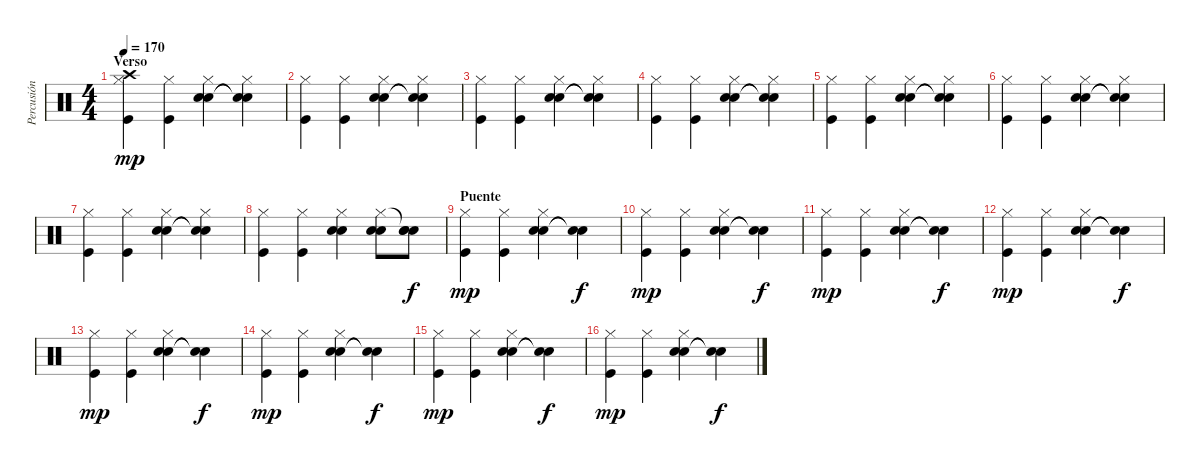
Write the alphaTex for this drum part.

\track ("Percusión" "Percusión") {instrument percussion}
\staff {score}
\articulation defaults
\ts (4 4)
\section ("" "Verso")
\tempo 170
\clef neutral
\ks c
("Kick (hit)" "Crash high (hit)" "Hi-Hat (closed)").4{dy mp} ("Kick (hit)" "Hi-Hat (closed)").4 ("Electric Snare (hit)" "Snare (hit) 2" "Hi-Hat (closed)").4 ("Snare (hit)"{t} "Snare (hit)"{t} "Hi-Hat (closed)").4 |
("Kick (hit)" "Hi-Hat (closed)").4 ("Kick (hit)" "Hi-Hat (closed)").4 ("Electric Snare (hit)" "Snare (hit) 2" "Hi-Hat (closed)").4 ("Snare (hit)"{t} "Snare (hit)"{t} "Hi-Hat (closed)").4 |
("Kick (hit)" "Hi-Hat (closed)").4 ("Kick (hit)" "Hi-Hat (closed)").4 ("Electric Snare (hit)" "Snare (hit) 2" "Hi-Hat (closed)").4 ("Snare (hit)"{t} "Snare (hit)"{t} "Hi-Hat (closed)").4 |
("Kick (hit)" "Hi-Hat (closed)").4 ("Kick (hit)" "Hi-Hat (closed)").4 ("Electric Snare (hit)" "Snare (hit) 2" "Hi-Hat (closed)").4 ("Snare (hit)"{t} "Snare (hit)"{t} "Hi-Hat (closed)").4 |
("Kick (hit)" "Hi-Hat (closed)").4 ("Kick (hit)" "Hi-Hat (closed)").4 ("Electric Snare (hit)" "Snare (hit) 2" "Hi-Hat (closed)").4 ("Snare (hit)"{t} "Snare (hit)"{t} "Hi-Hat (closed)").4 |
("Kick (hit)" "Hi-Hat (closed)").4 ("Kick (hit)" "Hi-Hat (closed)").4 ("Electric Snare (hit)" "Snare (hit) 2" "Hi-Hat (closed)").4 ("Snare (hit)"{t} "Snare (hit)"{t} "Hi-Hat (closed)").4 |
("Kick (hit)" "Hi-Hat (closed)").4 ("Kick (hit)" "Hi-Hat (closed)").4 ("Electric Snare (hit)" "Snare (hit) 2" "Hi-Hat (closed)").4 ("Snare (hit)"{t} "Snare (hit)"{t} "Hi-Hat (closed)").4 |
("Kick (hit)" "Hi-Hat (closed)").4 ("Kick (hit)" "Hi-Hat (closed)").4 ("Electric Snare (hit)" "Snare (hit) 2" "Hi-Hat (closed)").4 ("Electric Snare (hit)" "Snare (hit) 2" "Hi-Hat (closed)").8 ("Electric Snare (hit)" "Snare (hit) 2" "Snare (hit)"{t}).8{dy f} |
\section ("" "Puente")
("Kick (hit)" "Hi-Hat (closed)").4{dy mp} ("Kick (hit)" "Hi-Hat (closed)").4 ("Electric Snare (hit)" "Snare (hit) 2" "Hi-Hat (closed)").4 ("Snare (hit)"{t} "Snare (hit)"{t}).4{dy f} |
("Kick (hit)" "Hi-Hat (closed)").4{dy mp} ("Kick (hit)" "Hi-Hat (closed)").4 ("Electric Snare (hit)" "Snare (hit) 2" "Hi-Hat (closed)").4 ("Snare (hit)"{t} "Snare (hit)"{t}).4{dy f} |
("Kick (hit)" "Hi-Hat (closed)").4{dy mp} ("Kick (hit)" "Hi-Hat (closed)").4 ("Electric Snare (hit)" "Snare (hit) 2" "Hi-Hat (closed)").4 ("Snare (hit)"{t} "Snare (hit)"{t}).4{dy f} |
("Kick (hit)" "Hi-Hat (closed)").4{dy mp} ("Kick (hit)" "Hi-Hat (closed)").4 ("Electric Snare (hit)" "Snare (hit) 2" "Hi-Hat (closed)").4 ("Snare (hit)"{t} "Snare (hit)"{t}).4{dy f} |
("Kick (hit)" "Hi-Hat (closed)").4{dy mp} ("Kick (hit)" "Hi-Hat (closed)").4 ("Electric Snare (hit)" "Snare (hit) 2" "Hi-Hat (closed)").4 ("Snare (hit)"{t} "Snare (hit)"{t}).4{dy f} |
("Kick (hit)" "Hi-Hat (closed)").4{dy mp} ("Kick (hit)" "Hi-Hat (closed)").4 ("Electric Snare (hit)" "Snare (hit) 2" "Hi-Hat (closed)").4 ("Snare (hit)"{t} "Snare (hit)"{t}).4{dy f} |
("Kick (hit)" "Hi-Hat (closed)").4{dy mp} ("Kick (hit)" "Hi-Hat (closed)").4 ("Electric Snare (hit)" "Snare (hit) 2" "Hi-Hat (closed)").4 ("Snare (hit)"{t} "Snare (hit)"{t}).4{dy f} |
("Kick (hit)" "Hi-Hat (closed)").4{dy mp} ("Kick (hit)" "Hi-Hat (closed)").4 ("Electric Snare (hit)" "Snare (hit) 2" "Hi-Hat (closed)").4 ("Snare (hit)"{t} "Snare (hit)"{t}).4{dy f}
